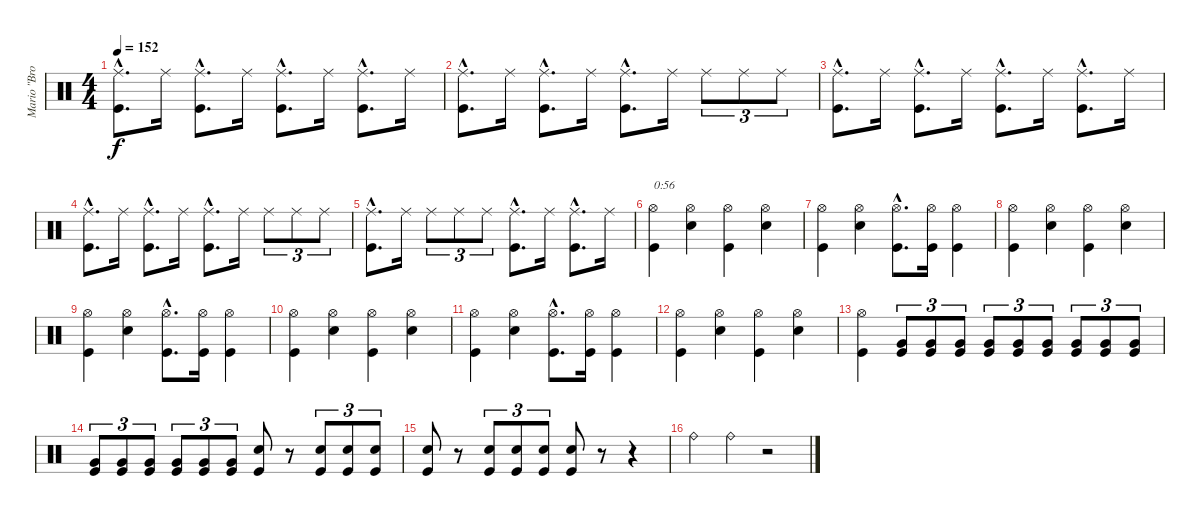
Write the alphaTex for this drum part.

\track ("Mario \"Bros\" Carvajal" "Mario \"Bro") {instrument percussion}
\staff {score}
\articulation defaults
\ts (4 4)
\tempo 152
\clef neutral
\ks c
("Kick (hit)"{hac} "Ride (middle)"{hac}).8{d dy f} "Ride (middle)".16 ("Kick (hit)"{hac} "Ride (middle)"{hac}).8{d} "Ride (middle)".16 ("Kick (hit)"{hac} "Ride (middle)"{hac}).8{d} "Ride (middle)".16 ("Kick (hit)"{hac} "Ride (middle)"{hac}).8{d} "Ride (middle)".16 |
("Kick (hit)"{hac} "Ride (middle)"{hac}).8{d} "Ride (middle)".16 ("Kick (hit)"{hac} "Ride (middle)"{hac}).8{d} "Ride (middle)".16 ("Kick (hit)"{hac} "Ride (middle)"{hac}).8{d} "Ride (middle)".16 "Ride (middle)".8{tu (3 2)} "Ride (middle)".8{tu (3 2)} "Ride (middle)".8{tu (3 2)} |
("Kick (hit)"{hac} "Ride (middle)"{hac}).8{d} "Ride (middle)".16 ("Kick (hit)"{hac} "Ride (middle)"{hac}).8{d} "Ride (middle)".16 ("Kick (hit)"{hac} "Ride (middle)"{hac}).8{d} "Ride (middle)".16 ("Kick (hit)"{hac} "Ride (middle)"{hac}).8{d} "Ride (middle)".16 |
("Kick (hit)"{hac} "Ride (middle)"{hac}).8{d} "Ride (middle)".16 ("Kick (hit)"{hac} "Ride (middle)"{hac}).8{d} "Ride (middle)".16 ("Kick (hit)"{hac} "Ride (middle)"{hac}).8{d} "Ride (middle)".16 "Ride (middle)".8{tu (3 2)} "Ride (middle)".8{tu (3 2)} "Ride (middle)".8{tu (3 2)} |
("Kick (hit)"{hac} "Ride (middle)"{hac}).8{d} "Ride (middle)".16 "Ride (middle)".8{tu (3 2)} "Ride (middle)".8{tu (3 2)} "Ride (middle)".8{tu (3 2)} ("Kick (hit)"{hac} "Ride (middle)"{hac}).8{d} "Ride (middle)".16 ("Kick (hit)"{hac} "Ride (middle)"{hac}).8{d} "Ride (middle)".16 |
("Kick (hit)" "Hi-Hat (open)").4{txt "0:56"} ("Snare (hit) 2" "Hi-Hat (open)").4 ("Kick (hit)" "Hi-Hat (open)").4 ("Snare (hit) 2" "Hi-Hat (open)").4 |
("Kick (hit)" "Hi-Hat (open)").4 ("Snare (hit) 2" "Hi-Hat (open)").4 ("Kick (hit)"{hac} "Hi-Hat (open)"{hac}).8{d} ("Kick (hit)" "Hi-Hat (open)").16 ("Kick (hit)" "Hi-Hat (open)").4 |
("Kick (hit)" "Hi-Hat (open)").4 ("Snare (hit) 2" "Hi-Hat (open)").4 ("Kick (hit)" "Hi-Hat (open)").4 ("Snare (hit) 2" "Hi-Hat (open)").4 |
("Kick (hit)" "Hi-Hat (open)").4 ("Snare (hit) 2" "Hi-Hat (open)").4 ("Kick (hit)"{hac} "Hi-Hat (open)"{hac}).8{d} ("Kick (hit)" "Hi-Hat (open)").16 ("Kick (hit)" "Hi-Hat (open)").4 |
("Kick (hit)" "Hi-Hat (open)").4 ("Snare (hit) 2" "Hi-Hat (open)").4 ("Kick (hit)" "Hi-Hat (open)").4 ("Snare (hit) 2" "Hi-Hat (open)").4 |
("Kick (hit)" "Hi-Hat (open)").4 ("Snare (hit) 2" "Hi-Hat (open)").4 ("Kick (hit)"{hac} "Hi-Hat (open)"{hac}).8{d} ("Kick (hit)" "Hi-Hat (open)").16 ("Kick (hit)" "Hi-Hat (open)").4 |
("Kick (hit)" "Hi-Hat (open)").4 ("Snare (hit) 2" "Hi-Hat (open)").4 ("Kick (hit)" "Hi-Hat (open)").4 ("Snare (hit) 2" "Hi-Hat (open)").4 |
("Kick (hit)" "Hi-Hat (open)").4 ("Kick (hit)" "Very Low Tom (hit)").8{tu (3 2)} ("Kick (hit)" "Very Low Tom (hit)").8{tu (3 2)} ("Kick (hit)" "Very Low Tom (hit)").8{tu (3 2)} ("Kick (hit)" "Very Low Tom (hit)").8{tu (3 2)} ("Kick (hit)" "Very Low Tom (hit)").8{tu (3 2)} ("Kick (hit)" "Very Low Tom (hit)").8{tu (3 2)} ("Kick (hit)" "Very Low Tom (hit)").8{tu (3 2)} ("Kick (hit)" "Very Low Tom (hit)").8{tu (3 2)} ("Kick (hit)" "Very Low Tom (hit)").8{tu (3 2)} |
("Kick (hit)" "Very Low Tom (hit)").8{tu (3 2)} ("Kick (hit)" "Very Low Tom (hit)").8{tu (3 2)} ("Kick (hit)" "Very Low Tom (hit)").8{tu (3 2)} ("Kick (hit)" "Very Low Tom (hit)").8{tu (3 2)} ("Kick (hit)" "Very Low Tom (hit)").8{tu (3 2)} ("Kick (hit)" "Very Low Tom (hit)").8{tu (3 2)} ("Kick (hit)" "Snare (hit) 2").8 r.8 ("Kick (hit)" "Snare (hit) 2").8{tu (3 2)} ("Kick (hit)" "Snare (hit) 2").8{tu (3 2)} ("Kick (hit)" "Snare (hit) 2").8{tu (3 2)} |
("Kick (hit)" "Snare (hit) 2").8 r.8 ("Kick (hit)" "Snare (hit) 2").8{tu (3 2)} ("Kick (hit)" "Snare (hit) 2").8{tu (3 2)} ("Kick (hit)" "Snare (hit) 2").8{tu (3 2)} ("Kick (hit)" "Snare (hit) 2").8 r.8 r.4 |
"Ride (bell)".4 "Ride (bell)".4 r.2
